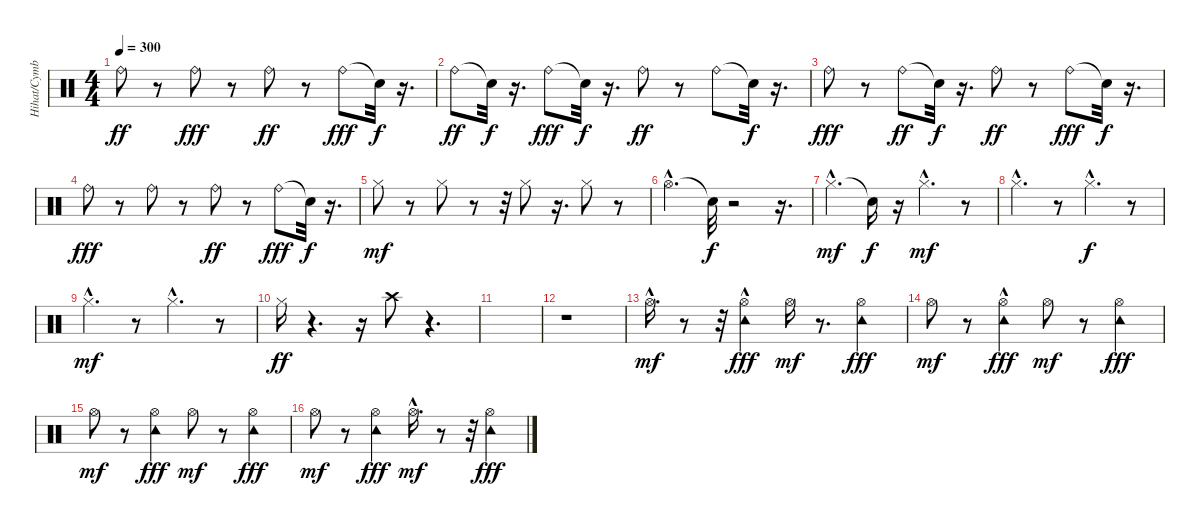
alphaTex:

\track ("Hihat/Cymbals/Tambourine" "Hihat/Cymb") {instrument percussion}
\staff {score}
\articulation defaults
\ts (4 4)
\tempo 300
\clef neutral
\ks c "Ride (bell)".8{dy ff}
r.8 "Ride (bell)".8{dy fff} r.8 "Ride (bell)".8{dy ff} r.8 "Ride (bell)".8{dy fff} "Snare (hit)"{t}.32{dy f} r.16{d} |
"Ride (bell)".8{dy ff} "Snare (hit)"{t}.32{dy f} r.16{d} "Ride (bell)".8{dy fff} "Snare (hit)"{t}.32{dy f} r.16{d} "Ride (bell)".8{dy ff} r.8 "Ride (bell)".8 "Snare (hit)"{t}.32{dy f} r.16{d} |
"Ride (bell)".8{dy fff} r.8 "Ride (bell)".8{dy ff} "Snare (hit)"{t}.32{dy f} r.16{d} "Ride (bell)".8{dy ff} r.8 "Ride (bell)".8{dy fff} "Snare (hit)"{t}.32{dy f} r.16{d} |
"Ride (bell)".8{dy fff} r.8 "Ride (bell)".8 r.8 "Ride (bell)".8{dy ff} r.8 "Ride (bell)".8{dy fff} "Snare (hit)"{t}.32{dy f} r.16{d} |
"Hi-Hat (closed)".8{dy mf} r.8 "Hi-Hat (closed)".8 r.8 r.32 "Hi-Hat (closed)".8 r.16{d} "Hi-Hat (closed)".8 r.8 |
"Hi-Hat (open)"{hac}.4{d} "Snare (hit)"{t}.32{dy f} r.2 r.16{d} |
"Hi-Hat (closed)"{hac}.4{d dy mf} "Snare (hit)"{t}.16{dy f} r.16 "Hi-Hat (closed)"{hac}.4{d dy mf} r.8 |
"Hi-Hat (closed)"{hac}.4{d} r.8 "Hi-Hat (closed)"{hac}.4{d dy f} r.8 |
"Hi-Hat (closed)"{hac}.4{d dy mf} r.8 "Hi-Hat (closed)"{hac}.4{d} r.8 |
"Hi-Hat (closed)".16{dy ff} r.4{d} r.16 "Crash high (hit)".8 r.4{d} |
|
r.1 |
"Hi-Hat (open)"{hac}.16{d dy mf} r.8 r.32 ("Hi-Hat (open)"{hac} "Tambourine (hit)").4{dy fff} "Hi-Hat (open)".16{dy mf} r.8{d} ("Hi-Hat (open)" "Tambourine (hit)").4{dy fff} |
"Hi-Hat (open)".8{dy mf} r.8 ("Hi-Hat (open)"{hac} "Tambourine (hit)").4{dy fff} "Hi-Hat (open)".8{dy mf} r.8 ("Hi-Hat (open)" "Tambourine (hit)").4{dy fff} |
"Hi-Hat (open)".8{dy mf} r.8 ("Hi-Hat (open)" "Tambourine (hit)").4{dy fff} "Hi-Hat (open)".8{dy mf} r.8 ("Hi-Hat (open)" "Tambourine (hit)").4{dy fff} |
"Hi-Hat (open)".8{dy mf} r.8 ("Hi-Hat (open)" "Tambourine (hit)").4{dy fff} "Hi-Hat (open)"{hac}.16{d dy mf} r.8 r.32 ("Hi-Hat (open)" "Tambourine (hit)").4{dy fff}
